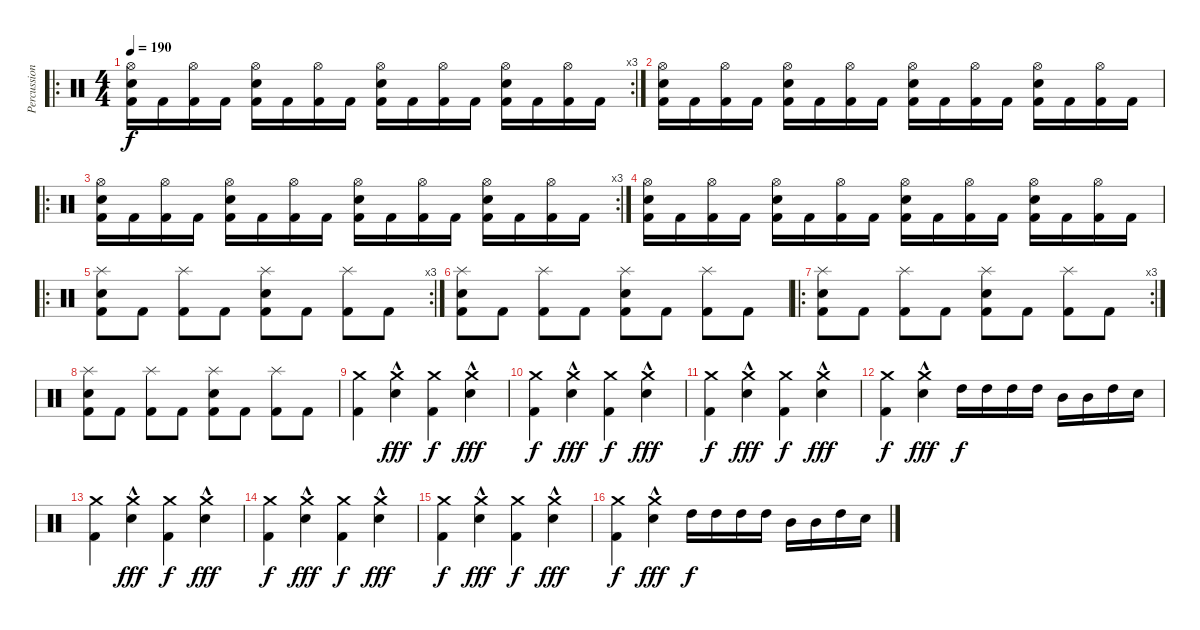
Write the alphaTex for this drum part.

\track ("Percussion" "Percussion") {instrument percussion}
\staff {score}
\articulation defaults
\ro
\rc 3
\ts (4 4)
\tempo 190
\clef neutral
\ks c
("Hi-Hat (open)" "Snare (hit) 2" "Kick (hit) 2").16{dy f} "Kick (hit) 2".16 ("Hi-Hat (open)" "Kick (hit) 2").16 "Kick (hit) 2".16 ("Hi-Hat (open)" "Snare (hit) 2" "Kick (hit) 2").16 "Kick (hit) 2".16 ("Hi-Hat (open)" "Kick (hit) 2").16 "Kick (hit) 2".16 ("Hi-Hat (open)" "Snare (hit) 2" "Kick (hit) 2").16 "Kick (hit) 2".16 ("Hi-Hat (open)" "Kick (hit) 2").16 "Kick (hit) 2".16 ("Hi-Hat (open)" "Snare (hit) 2" "Kick (hit) 2").16 "Kick (hit) 2".16 ("Hi-Hat (open)" "Kick (hit) 2").16 "Kick (hit) 2".16 |
("Hi-Hat (open)" "Snare (hit) 2" "Kick (hit) 2").16 "Kick (hit) 2".16 ("Hi-Hat (open)" "Kick (hit) 2").16 "Kick (hit) 2".16 ("Hi-Hat (open)" "Snare (hit) 2" "Kick (hit) 2").16 "Kick (hit) 2".16 ("Hi-Hat (open)" "Kick (hit) 2").16 "Kick (hit) 2".16 ("Hi-Hat (open)" "Snare (hit) 2" "Kick (hit) 2").16 "Kick (hit) 2".16 ("Hi-Hat (open)" "Kick (hit) 2").16 "Kick (hit) 2".16 ("Hi-Hat (open)" "Snare (hit) 2" "Kick (hit) 2").16 "Kick (hit) 2".16 ("Hi-Hat (open)" "Kick (hit) 2").16 "Kick (hit) 2".16 |
\ro
\rc 3
("Hi-Hat (open)" "Snare (hit) 2" "Kick (hit) 2").16 "Kick (hit) 2".16 ("Hi-Hat (open)" "Kick (hit) 2").16 "Kick (hit) 2".16 ("Hi-Hat (open)" "Snare (hit) 2" "Kick (hit) 2").16 "Kick (hit) 2".16 ("Hi-Hat (open)" "Kick (hit) 2").16 "Kick (hit) 2".16 ("Hi-Hat (open)" "Snare (hit) 2" "Kick (hit) 2").16 "Kick (hit) 2".16 ("Hi-Hat (open)" "Kick (hit) 2").16 "Kick (hit) 2".16 ("Hi-Hat (open)" "Snare (hit) 2" "Kick (hit) 2").16 "Kick (hit) 2".16 ("Hi-Hat (open)" "Kick (hit) 2").16 "Kick (hit) 2".16 |
("Hi-Hat (open)" "Snare (hit) 2" "Kick (hit) 2").16 "Kick (hit) 2".16 ("Hi-Hat (open)" "Kick (hit) 2").16 "Kick (hit) 2".16 ("Hi-Hat (open)" "Snare (hit) 2" "Kick (hit) 2").16 "Kick (hit) 2".16 ("Hi-Hat (open)" "Kick (hit) 2").16 "Kick (hit) 2".16 ("Hi-Hat (open)" "Snare (hit) 2" "Kick (hit) 2").16 "Kick (hit) 2".16 ("Hi-Hat (open)" "Kick (hit) 2").16 "Kick (hit) 2".16 ("Hi-Hat (open)" "Snare (hit) 2" "Kick (hit) 2").16 "Kick (hit) 2".16 ("Hi-Hat (open)" "Kick (hit) 2").16 "Kick (hit) 2".16 |
\ro
\rc 3
("Splash (hit)" "Snare (hit) 2" "Kick (hit) 2").8 "Kick (hit) 2".8 ("Splash (hit)" "Kick (hit) 2").8 "Kick (hit) 2".8 ("Splash (hit)" "Snare (hit) 2" "Kick (hit) 2").8 "Kick (hit) 2".8 ("Splash (hit)" "Kick (hit) 2").8 "Kick (hit) 2".8 |
("Splash (hit)" "Snare (hit) 2" "Kick (hit) 2").8 "Kick (hit) 2".8 ("Splash (hit)" "Kick (hit) 2").8 "Kick (hit) 2".8 ("Splash (hit)" "Snare (hit) 2" "Kick (hit) 2").8 "Kick (hit) 2".8 ("Splash (hit)" "Kick (hit) 2").8 "Kick (hit) 2".8 |
\ro
\rc 3
("Splash (hit)" "Snare (hit) 2" "Kick (hit) 2").8 "Kick (hit) 2".8 ("Splash (hit)" "Kick (hit) 2").8 "Kick (hit) 2".8 ("Splash (hit)" "Snare (hit) 2" "Kick (hit) 2").8 "Kick (hit) 2".8 ("Splash (hit)" "Kick (hit) 2").8 "Kick (hit) 2".8 |
("Splash (hit)" "Snare (hit) 2" "Kick (hit) 2").8 "Kick (hit) 2".8 ("Splash (hit)" "Kick (hit) 2").8 "Kick (hit) 2".8 ("Splash (hit)" "Snare (hit) 2" "Kick (hit) 2").8 "Kick (hit) 2".8 ("Splash (hit)" "Kick (hit) 2").8 "Kick (hit) 2".8 |
("Crash medium (hit)" "Kick (hit) 2").4 ("Crash medium (hit)" "Snare (hit) 2"{hac}).4{dy fff} ("Crash medium (hit)" "Kick (hit) 2").4{dy f} ("Crash medium (hit)" "Snare (hit) 2"{hac}).4{dy fff} |
("Crash medium (hit)" "Kick (hit) 2").4{dy f} ("Crash medium (hit)" "Snare (hit) 2"{hac}).4{dy fff} ("Crash medium (hit)" "Kick (hit) 2").4{dy f} ("Crash medium (hit)" "Snare (hit) 2"{hac}).4{dy fff} |
("Crash medium (hit)" "Kick (hit) 2").4{dy f} ("Crash medium (hit)" "Snare (hit) 2"{hac}).4{dy fff} ("Crash medium (hit)" "Kick (hit) 2").4{dy f} ("Crash medium (hit)" "Snare (hit) 2"{hac}).4{dy fff} |
("Crash medium (hit)" "Kick (hit) 2").4{dy f} ("Crash medium (hit)" "Snare (hit) 2"{hac}).4{dy fff} "High Tom (hit)".16{dy f} "High Tom (hit)".16 "High Tom (hit)".16 "High Tom (hit)".16 "Mid Tom (hit)".16 "Mid Tom (hit)".16 "High Tom (hit)".16 "Snare (hit) 2".16 |
("Crash medium (hit)" "Kick (hit) 2").4 ("Crash medium (hit)" "Snare (hit) 2"{hac}).4{dy fff} ("Crash medium (hit)" "Kick (hit) 2").4{dy f} ("Crash medium (hit)" "Snare (hit) 2"{hac}).4{dy fff} |
("Crash medium (hit)" "Kick (hit) 2").4{dy f} ("Crash medium (hit)" "Snare (hit) 2"{hac}).4{dy fff} ("Crash medium (hit)" "Kick (hit) 2").4{dy f} ("Crash medium (hit)" "Snare (hit) 2"{hac}).4{dy fff} |
("Crash medium (hit)" "Kick (hit) 2").4{dy f} ("Crash medium (hit)" "Snare (hit) 2"{hac}).4{dy fff} ("Crash medium (hit)" "Kick (hit) 2").4{dy f} ("Crash medium (hit)" "Snare (hit) 2"{hac}).4{dy fff} |
("Crash medium (hit)" "Kick (hit) 2").4{dy f} ("Crash medium (hit)" "Snare (hit) 2"{hac}).4{dy fff} "High Tom (hit)".16{dy f} "High Tom (hit)".16 "High Tom (hit)".16 "High Tom (hit)".16 "Mid Tom (hit)".16 "Mid Tom (hit)".16 "High Tom (hit)".16 "Snare (hit) 2".16
